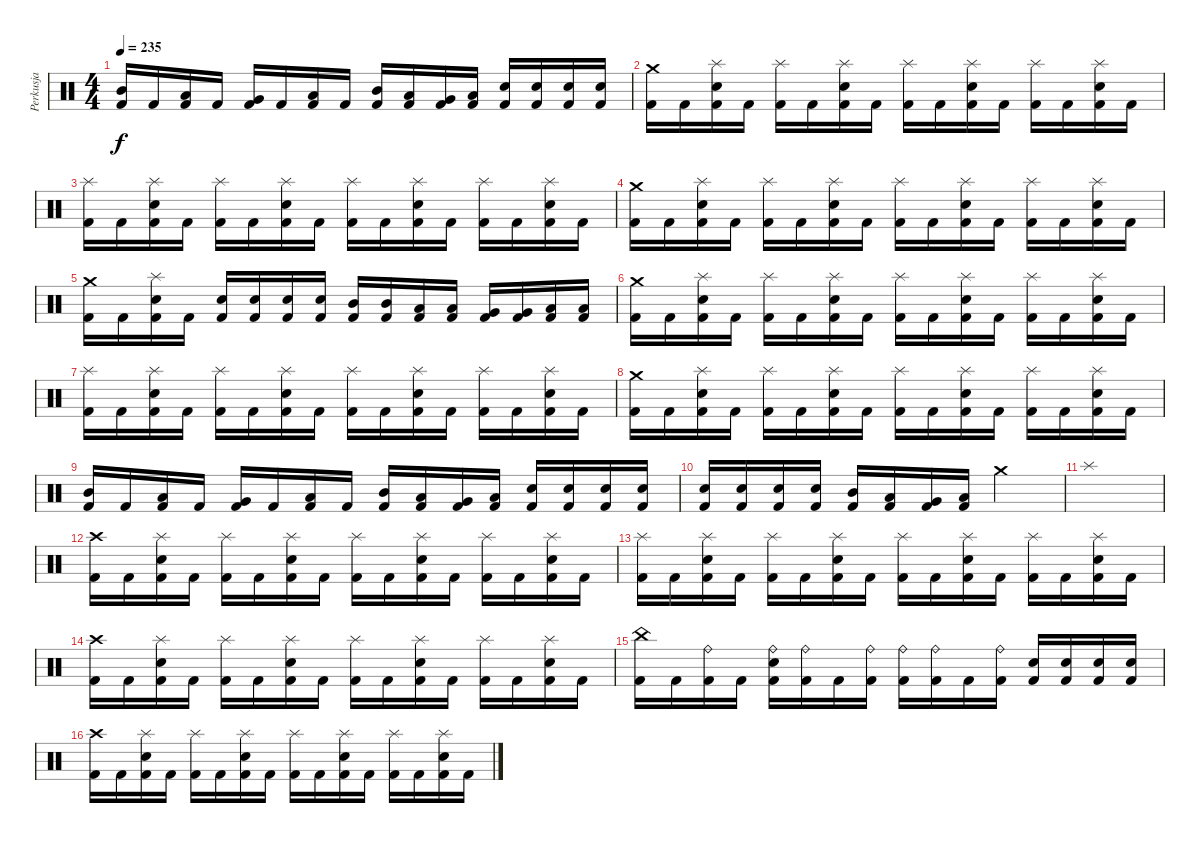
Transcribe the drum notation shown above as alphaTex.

\track ("Perkusja" "Perkusja") {instrument percussion}
\staff {score}
\articulation defaults
\ts (4 4)
\tempo 235
\clef neutral
\ks c
("Mid Tom (hit)" "Kick (hit) 2").16{dy f} "Kick (hit) 2".16 ("Low Tom (hit)" "Kick (hit) 2").16 "Kick (hit) 2".16 ("Very Low Tom (hit)" "Kick (hit) 2").16 "Kick (hit) 2".16 ("Low Floor Tom (hit)" "Kick (hit) 2").16 "Kick (hit) 2".16 ("Mid Tom (hit)" "Kick (hit) 2").16 ("Low Tom (hit)" "Kick (hit) 2").16 ("Very Low Tom (hit)" "Kick (hit) 2").16 ("Low Floor Tom (hit)" "Kick (hit) 2").16 ("Snare (hit) 2" "Kick (hit) 2").16 ("Snare (hit) 2" "Kick (hit) 2").16 ("Snare (hit) 2" "Kick (hit) 2").16 ("Snare (hit) 2" "Kick (hit) 2").16 |
("Crash medium (hit)" "Kick (hit) 2").16 "Kick (hit) 2".16 ("Splash (hit)" "Snare (hit) 2" "Kick (hit) 2").16 "Kick (hit) 2".16 ("Splash (hit)" "Kick (hit) 2").16 "Kick (hit) 2".16 ("Splash (hit)" "Snare (hit) 2" "Kick (hit) 2").16 "Kick (hit) 2".16 ("Splash (hit)" "Kick (hit) 2").16 "Kick (hit) 2".16 ("Splash (hit)" "Snare (hit) 2" "Kick (hit) 2").16 "Kick (hit) 2".16 ("Splash (hit)" "Kick (hit) 2").16 "Kick (hit) 2".16 ("Splash (hit)" "Snare (hit) 2" "Kick (hit) 2").16 "Kick (hit) 2".16 |
("Splash (hit)" "Kick (hit) 2").16 "Kick (hit) 2".16 ("Splash (hit)" "Snare (hit) 2" "Kick (hit) 2").16 "Kick (hit) 2".16 ("Splash (hit)" "Kick (hit) 2").16 "Kick (hit) 2".16 ("Splash (hit)" "Snare (hit) 2" "Kick (hit) 2").16 "Kick (hit) 2".16 ("Splash (hit)" "Kick (hit) 2").16 "Kick (hit) 2".16 ("Splash (hit)" "Snare (hit) 2" "Kick (hit) 2").16 "Kick (hit) 2".16 ("Splash (hit)" "Kick (hit) 2").16 "Kick (hit) 2".16 ("Splash (hit)" "Snare (hit) 2" "Kick (hit) 2").16 "Kick (hit) 2".16 |
("Crash medium (hit)" "Kick (hit) 2").16 "Kick (hit) 2".16 ("Splash (hit)" "Snare (hit) 2" "Kick (hit) 2").16 "Kick (hit) 2".16 ("Splash (hit)" "Kick (hit) 2").16 "Kick (hit) 2".16 ("Splash (hit)" "Snare (hit) 2" "Kick (hit) 2").16 "Kick (hit) 2".16 ("Splash (hit)" "Kick (hit) 2").16 "Kick (hit) 2".16 ("Splash (hit)" "Snare (hit) 2" "Kick (hit) 2").16 "Kick (hit) 2".16 ("Splash (hit)" "Kick (hit) 2").16 "Kick (hit) 2".16 ("Splash (hit)" "Snare (hit) 2" "Kick (hit) 2").16 "Kick (hit) 2".16 |
("Crash medium (hit)" "Kick (hit) 2").16 "Kick (hit) 2".16 ("Splash (hit)" "Snare (hit) 2" "Kick (hit) 2").16 "Kick (hit) 2".16 ("Electric Snare (hit)" "Kick (hit) 2").16 ("Electric Snare (hit)" "Kick (hit) 2").16 ("Electric Snare (hit)" "Kick (hit) 2").16 ("Electric Snare (hit)" "Kick (hit) 2").16 ("Mid Tom (hit)" "Kick (hit) 2").16 ("Mid Tom (hit)" "Kick (hit) 2").16 ("Low Tom (hit)" "Kick (hit) 2").16 ("Low Tom (hit)" "Kick (hit) 2").16 ("Very Low Tom (hit)" "Kick (hit) 2").16 ("Very Low Tom (hit)" "Kick (hit) 2").16 ("Low Floor Tom (hit)" "Kick (hit) 2").16 ("Low Floor Tom (hit)" "Kick (hit) 2").16 |
("Crash medium (hit)" "Kick (hit) 2").16 "Kick (hit) 2".16 ("Splash (hit)" "Snare (hit) 2" "Kick (hit) 2").16 "Kick (hit) 2".16 ("Splash (hit)" "Kick (hit) 2").16 "Kick (hit) 2".16 ("Splash (hit)" "Snare (hit) 2" "Kick (hit) 2").16 "Kick (hit) 2".16 ("Splash (hit)" "Kick (hit) 2").16 "Kick (hit) 2".16 ("Splash (hit)" "Snare (hit) 2" "Kick (hit) 2").16 "Kick (hit) 2".16 ("Splash (hit)" "Kick (hit) 2").16 "Kick (hit) 2".16 ("Splash (hit)" "Snare (hit) 2" "Kick (hit) 2").16 "Kick (hit) 2".16 |
("Splash (hit)" "Kick (hit) 2").16 "Kick (hit) 2".16 ("Splash (hit)" "Snare (hit) 2" "Kick (hit) 2").16 "Kick (hit) 2".16 ("Splash (hit)" "Kick (hit) 2").16 "Kick (hit) 2".16 ("Splash (hit)" "Snare (hit) 2" "Kick (hit) 2").16 "Kick (hit) 2".16 ("Splash (hit)" "Kick (hit) 2").16 "Kick (hit) 2".16 ("Splash (hit)" "Snare (hit) 2" "Kick (hit) 2").16 "Kick (hit) 2".16 ("Splash (hit)" "Kick (hit) 2").16 "Kick (hit) 2".16 ("Splash (hit)" "Snare (hit) 2" "Kick (hit) 2").16 "Kick (hit) 2".16 |
("Crash medium (hit)" "Kick (hit) 2").16 "Kick (hit) 2".16 ("Splash (hit)" "Snare (hit) 2" "Kick (hit) 2").16 "Kick (hit) 2".16 ("Splash (hit)" "Kick (hit) 2").16 "Kick (hit) 2".16 ("Splash (hit)" "Snare (hit) 2" "Kick (hit) 2").16 "Kick (hit) 2".16 ("Splash (hit)" "Kick (hit) 2").16 "Kick (hit) 2".16 ("Splash (hit)" "Snare (hit) 2" "Kick (hit) 2").16 "Kick (hit) 2".16 ("Splash (hit)" "Kick (hit) 2").16 "Kick (hit) 2".16 ("Splash (hit)" "Snare (hit) 2" "Kick (hit) 2").16 "Kick (hit) 2".16 |
("Mid Tom (hit)" "Kick (hit) 2").16 "Kick (hit) 2".16 ("Low Tom (hit)" "Kick (hit) 2").16 "Kick (hit) 2".16 ("Very Low Tom (hit)" "Kick (hit) 2").16 "Kick (hit) 2".16 ("Low Floor Tom (hit)" "Kick (hit) 2").16 "Kick (hit) 2".16 ("Mid Tom (hit)" "Kick (hit) 2").16 ("Low Tom (hit)" "Kick (hit) 2").16 ("Very Low Tom (hit)" "Kick (hit) 2").16 ("Low Floor Tom (hit)" "Kick (hit) 2").16 ("Snare (hit) 2" "Kick (hit) 2").16 ("Snare (hit) 2" "Kick (hit) 2").16 ("Snare (hit) 2" "Kick (hit) 2").16 ("Snare (hit) 2" "Kick (hit) 2").16 |
("Electric Snare (hit)" "Kick (hit) 2").16 ("Electric Snare (hit)" "Kick (hit) 2").16 ("Electric Snare (hit)" "Kick (hit) 2").16 ("Electric Snare (hit)" "Kick (hit) 2").16 ("Mid Tom (hit)" "Kick (hit) 2").16 ("Low Tom (hit)" "Kick (hit) 2").16 ("Very Low Tom (hit)" "Kick (hit) 2").16 ("Low Floor Tom (hit)" "Kick (hit) 2").16 "Crash medium (hit)".2 |
"Splash (hit)".1 |
("Crash high (hit)" "Kick (hit) 2").16 "Kick (hit) 2".16 ("Splash (hit)" "Snare (hit) 2" "Kick (hit) 2").16 "Kick (hit) 2".16 ("Splash (hit)" "Kick (hit) 2").16 "Kick (hit) 2".16 ("Splash (hit)" "Snare (hit) 2" "Kick (hit) 2").16 "Kick (hit) 2".16 ("Splash (hit)" "Kick (hit) 2").16 "Kick (hit) 2".16 ("Splash (hit)" "Snare (hit) 2" "Kick (hit) 2").16 "Kick (hit) 2".16 ("Splash (hit)" "Kick (hit) 2").16 "Kick (hit) 2".16 ("Splash (hit)" "Snare (hit) 2" "Kick (hit) 2").16 "Kick (hit) 2".16 |
("Splash (hit)" "Kick (hit) 2").16 "Kick (hit) 2".16 ("Splash (hit)" "Snare (hit) 2" "Kick (hit) 2").16 "Kick (hit) 2".16 ("Splash (hit)" "Kick (hit) 2").16 "Kick (hit) 2".16 ("Splash (hit)" "Snare (hit) 2" "Kick (hit) 2").16 "Kick (hit) 2".16 ("Splash (hit)" "Kick (hit) 2").16 "Kick (hit) 2".16 ("Splash (hit)" "Snare (hit) 2" "Kick (hit) 2").16 "Kick (hit) 2".16 ("Splash (hit)" "Kick (hit) 2").16 "Kick (hit) 2".16 ("Splash (hit)" "Snare (hit) 2" "Kick (hit) 2").16 "Kick (hit) 2".16 |
("Crash high (hit)" "Kick (hit) 2").16 "Kick (hit) 2".16 ("Splash (hit)" "Snare (hit) 2" "Kick (hit) 2").16 "Kick (hit) 2".16 ("Splash (hit)" "Kick (hit) 2").16 "Kick (hit) 2".16 ("Splash (hit)" "Snare (hit) 2" "Kick (hit) 2").16 "Kick (hit) 2".16 ("Splash (hit)" "Kick (hit) 2").16 "Kick (hit) 2".16 ("Splash (hit)" "Snare (hit) 2" "Kick (hit) 2").16 "Kick (hit) 2".16 ("Splash (hit)" "Kick (hit) 2").16 "Kick (hit) 2".16 ("Splash (hit)" "Snare (hit) 2" "Kick (hit) 2").16 "Kick (hit) 2".16 |
("China (hit)" "Kick (hit) 2").16 "Kick (hit) 2".16 ("Ride (bell)" "Kick (hit) 2").16 "Kick (hit) 2".16 ("Ride (bell)" "Electric Snare (hit)" "Kick (hit) 2").16 ("Ride (bell)" "Kick (hit) 2").16 "Kick (hit) 2".16 ("Ride (bell)" "Kick (hit) 2").16 ("Ride (bell)" "Kick (hit) 2").16 ("Ride (bell)" "Kick (hit) 2").16 "Kick (hit) 2".16 ("Ride (bell)" "Kick (hit) 2").16 ("Snare (hit) 2" "Kick (hit) 2").16 ("Snare (hit) 2" "Kick (hit) 2").16 ("Snare (hit) 2" "Kick (hit) 2").16 ("Snare (hit) 2" "Kick (hit) 2").16 |
("Crash high (hit)" "Kick (hit) 2").16 "Kick (hit) 2".16 ("Splash (hit)" "Snare (hit) 2" "Kick (hit) 2").16 "Kick (hit) 2".16 ("Splash (hit)" "Kick (hit) 2").16 "Kick (hit) 2".16 ("Splash (hit)" "Snare (hit) 2" "Kick (hit) 2").16 "Kick (hit) 2".16 ("Splash (hit)" "Kick (hit) 2").16 "Kick (hit) 2".16 ("Splash (hit)" "Snare (hit) 2" "Kick (hit) 2").16 "Kick (hit) 2".16 ("Splash (hit)" "Kick (hit) 2").16 "Kick (hit) 2".16 ("Splash (hit)" "Snare (hit) 2" "Kick (hit) 2").16 "Kick (hit) 2".16
